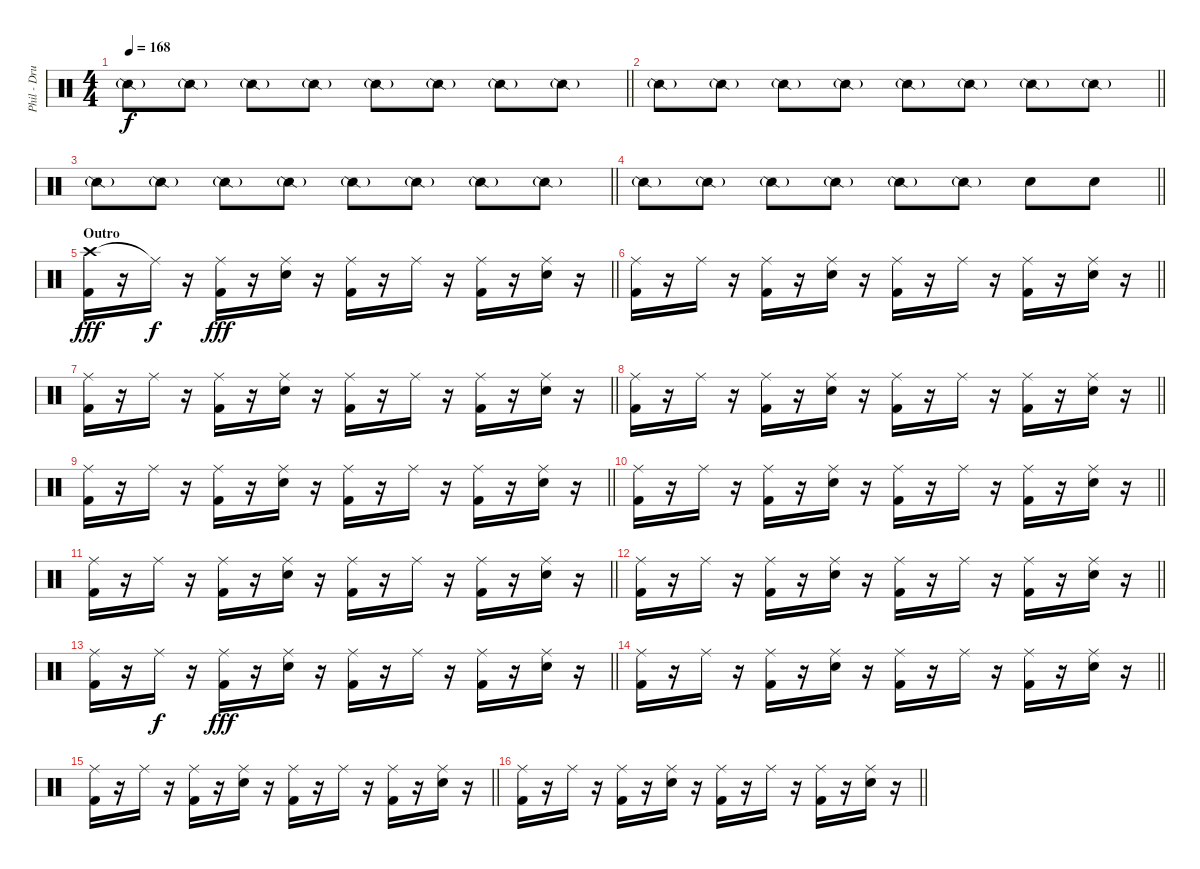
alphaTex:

\track ("Phil - Drums" "Phil - Dru") {instrument percussion}
\staff {score}
\articulation defaults
\ts (4 4)
\tempo 168
\clef neutral
\barLineRight lightlight
\ks c "Snare (side stick) 2"{g}.8{dy f} "Snare (side stick) 2"{g}.8 "Snare (side stick) 2"{g}.8 "Snare (side stick) 2"{g}.8 "Snare (side stick) 2"{g}.8 "Snare (side stick) 2"{g}.8 "Snare (side stick) 2"{g}.8 "Snare (side stick) 2"{g}.8
|
\barLineRight lightlight "Snare (side stick) 2"{g}.8 "Snare (side stick) 2"{g}.8 "Snare (side stick) 2"{g}.8 "Snare (side stick) 2"{g}.8 "Snare (side stick) 2"{g}.8 "Snare (side stick) 2"{g}.8 "Snare (side stick) 2"{g}.8 "Snare (side stick) 2"{g}.8
|
\barLineRight lightlight "Snare (side stick) 2"{g}.8 "Snare (side stick) 2"{g}.8 "Snare (side stick) 2"{g}.8 "Snare (side stick) 2"{g}.8 "Snare (side stick) 2"{g}.8 "Snare (side stick) 2"{g}.8 "Snare (side stick) 2"{g}.8 "Snare (side stick) 2"{g}.8
|
\barLineRight lightlight "Snare (side stick) 2"{g}.8 "Snare (side stick) 2"{g}.8 "Snare (side stick) 2"{g}.8 "Snare (side stick) 2"{g}.8 "Snare (side stick) 2"{g}.8 "Snare (side stick) 2"{g}.8 "Electric Snare (hit)".8 "Electric Snare (hit)".8
|
\section ("" "Outro")
\barLineRight lightlight
("Crash high (hit)" "Kick (hit) 2").16{dy fff} r.16 "Ride (middle)"{t}.16{dy f} r.16 ("Ride (middle)" "Kick (hit) 2").16{dy fff} r.16 ("Ride (middle)" "Electric Snare (hit)").16 r.16 ("Ride (middle)" "Kick (hit) 2").16 r.16 "Ride (middle)".16 r.16 ("Ride (middle)" "Kick (hit) 2").16 r.16 ("Ride (middle)" "Electric Snare (hit)").16 r.16 |
\barLineRight lightlight
("Ride (middle)" "Kick (hit) 2").16 r.16 "Ride (middle)".16 r.16 ("Ride (middle)" "Kick (hit) 2").16 r.16 ("Ride (middle)" "Electric Snare (hit)").16 r.16 ("Ride (middle)" "Kick (hit) 2").16 r.16 "Ride (middle)".16 r.16 ("Ride (middle)" "Kick (hit) 2").16 r.16 ("Ride (middle)" "Electric Snare (hit)").16 r.16 |
\barLineRight lightlight
("Ride (middle)" "Kick (hit) 2").16 r.16 "Ride (middle)".16 r.16 ("Ride (middle)" "Kick (hit) 2").16 r.16 ("Ride (middle)" "Electric Snare (hit)").16 r.16 ("Ride (middle)" "Kick (hit) 2").16 r.16 "Ride (middle)".16 r.16 ("Ride (middle)" "Kick (hit) 2").16 r.16 ("Ride (middle)" "Electric Snare (hit)").16 r.16 |
\barLineRight lightlight
("Ride (middle)" "Kick (hit) 2").16 r.16 "Ride (middle)".16 r.16 ("Ride (middle)" "Kick (hit) 2").16 r.16 ("Ride (middle)" "Electric Snare (hit)").16 r.16 ("Ride (middle)" "Kick (hit) 2").16 r.16 "Ride (middle)".16 r.16 ("Ride (middle)" "Kick (hit) 2").16 r.16 ("Ride (middle)" "Electric Snare (hit)").16 r.16 |
\barLineRight lightlight
("Ride (middle)" "Kick (hit) 2").16 r.16 "Ride (middle)".16 r.16 ("Ride (middle)" "Kick (hit) 2").16 r.16 ("Ride (middle)" "Electric Snare (hit)").16 r.16 ("Ride (middle)" "Kick (hit) 2").16 r.16 "Ride (middle)".16 r.16 ("Ride (middle)" "Kick (hit) 2").16 r.16 ("Ride (middle)" "Electric Snare (hit)").16 r.16 |
\barLineRight lightlight
("Ride (middle)" "Kick (hit) 2").16 r.16 "Ride (middle)".16 r.16 ("Ride (middle)" "Kick (hit) 2").16 r.16 ("Ride (middle)" "Electric Snare (hit)").16 r.16 ("Ride (middle)" "Kick (hit) 2").16 r.16 "Ride (middle)".16 r.16 ("Ride (middle)" "Kick (hit) 2").16 r.16 ("Ride (middle)" "Electric Snare (hit)").16 r.16 |
\barLineRight lightlight
("Ride (middle)" "Kick (hit) 2").16 r.16 "Ride (middle)".16 r.16 ("Ride (middle)" "Kick (hit) 2").16 r.16 ("Ride (middle)" "Electric Snare (hit)").16 r.16 ("Ride (middle)" "Kick (hit) 2").16 r.16 "Ride (middle)".16 r.16 ("Ride (middle)" "Kick (hit) 2").16 r.16 ("Ride (middle)" "Electric Snare (hit)").16 r.16 |
\barLineRight lightlight
("Ride (middle)" "Kick (hit) 2").16 r.16 "Ride (middle)".16 r.16 ("Ride (middle)" "Kick (hit) 2").16 r.16 ("Ride (middle)" "Electric Snare (hit)").16 r.16 ("Ride (middle)" "Kick (hit) 2").16 r.16 "Ride (middle)".16 r.16 ("Ride (middle)" "Kick (hit) 2").16 r.16 ("Ride (middle)" "Electric Snare (hit)").16 r.16 |
\barLineRight lightlight
("Ride (middle)" "Kick (hit) 2").16 r.16 "Ride (middle)".16{dy f} r.16 ("Ride (middle)" "Kick (hit) 2").16{dy fff} r.16 ("Ride (middle)" "Electric Snare (hit)").16 r.16 ("Ride (middle)" "Kick (hit) 2").16 r.16 "Ride (middle)".16 r.16 ("Ride (middle)" "Kick (hit) 2").16 r.16 ("Ride (middle)" "Electric Snare (hit)").16 r.16 |
\barLineRight lightlight
("Ride (middle)" "Kick (hit) 2").16 r.16 "Ride (middle)".16 r.16 ("Ride (middle)" "Kick (hit) 2").16 r.16 ("Ride (middle)" "Electric Snare (hit)").16 r.16 ("Ride (middle)" "Kick (hit) 2").16 r.16 "Ride (middle)".16 r.16 ("Ride (middle)" "Kick (hit) 2").16 r.16 ("Ride (middle)" "Electric Snare (hit)").16 r.16 |
\barLineRight lightlight
("Ride (middle)" "Kick (hit) 2").16 r.16 "Ride (middle)".16 r.16 ("Ride (middle)" "Kick (hit) 2").16 r.16 ("Ride (middle)" "Electric Snare (hit)").16 r.16 ("Ride (middle)" "Kick (hit) 2").16 r.16 "Ride (middle)".16 r.16 ("Ride (middle)" "Kick (hit) 2").16 r.16 ("Ride (middle)" "Electric Snare (hit)").16 r.16 |
\barLineRight lightlight
("Ride (middle)" "Kick (hit) 2").16 r.16 "Ride (middle)".16 r.16 ("Ride (middle)" "Kick (hit) 2").16 r.16 ("Ride (middle)" "Electric Snare (hit)").16 r.16 ("Ride (middle)" "Kick (hit) 2").16 r.16 "Ride (middle)".16 r.16 ("Ride (middle)" "Kick (hit) 2").16 r.16 ("Ride (middle)" "Electric Snare (hit)").16 r.16
